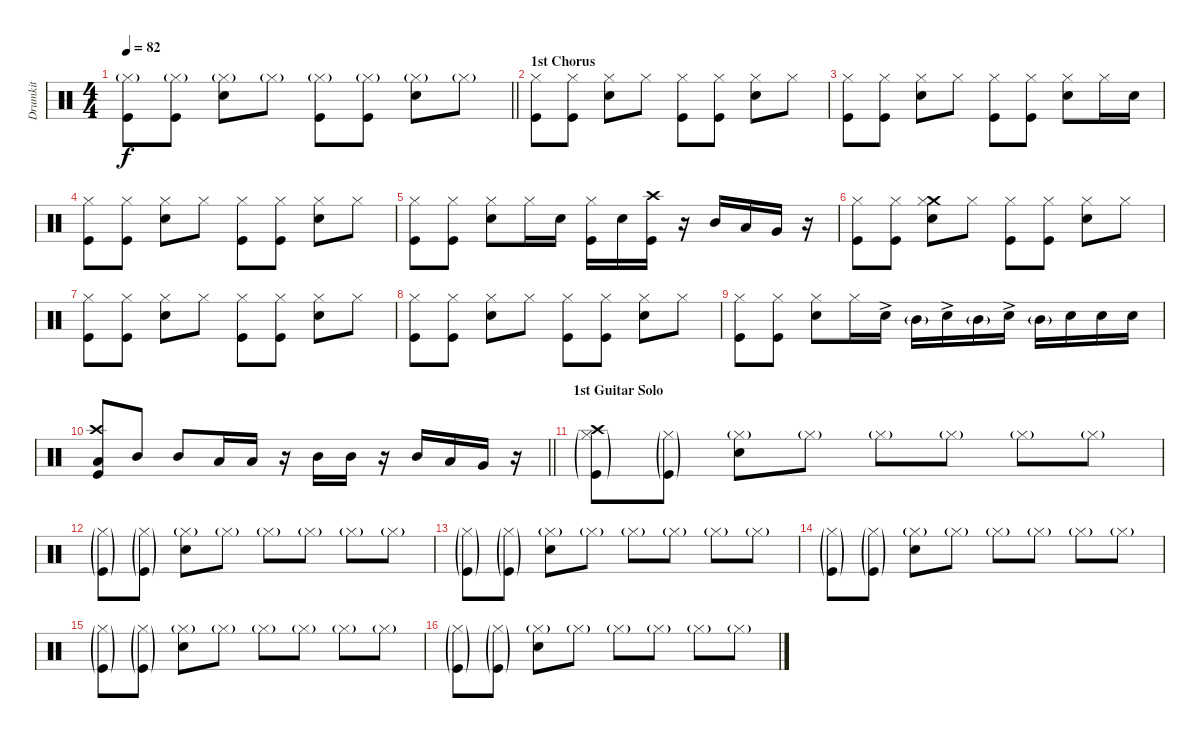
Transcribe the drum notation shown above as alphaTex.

\track ("Drumkit" "Drumkit") {instrument percussion}
\staff {score}
\articulation defaults
\ts (4 4)
\tempo 82
\clef neutral
\barLineRight lightlight
\ks c
("Hi-Hat (closed)"{g} "Kick (hit)").8{dy f} ("Hi-Hat (closed)"{g} "Kick (hit)").8 ("Hi-Hat (closed)"{g} "Snare (hit) 2").8 "Hi-Hat (closed)"{g}.8 ("Hi-Hat (closed)"{g} "Kick (hit)").8 ("Hi-Hat (closed)"{g} "Kick (hit)").8 ("Hi-Hat (closed)"{g} "Snare (hit) 2").8 "Hi-Hat (closed)"{g}.8 |
\section ("" "1st Chorus")
("Hi-Hat (closed)" "Kick (hit)").8 ("Hi-Hat (closed)" "Kick (hit)").8 ("Hi-Hat (closed)" "Snare (hit) 2").8 "Hi-Hat (closed)".8 ("Hi-Hat (closed)" "Kick (hit)").8 ("Hi-Hat (closed)" "Kick (hit)").8 ("Hi-Hat (closed)" "Snare (hit) 2").8 "Hi-Hat (closed)".8 |
("Hi-Hat (closed)" "Kick (hit)").8 ("Hi-Hat (closed)" "Kick (hit)").8 ("Hi-Hat (closed)" "Snare (hit) 2").8 "Hi-Hat (closed)".8 ("Hi-Hat (closed)" "Kick (hit)").8 ("Hi-Hat (closed)" "Kick (hit)").8 ("Hi-Hat (closed)" "Snare (hit) 2").8 "Hi-Hat (closed)".16 "Snare (hit) 2".16 |
("Hi-Hat (closed)" "Kick (hit)").8 ("Hi-Hat (closed)" "Kick (hit)").8 ("Hi-Hat (closed)" "Snare (hit) 2").8 "Hi-Hat (closed)".8 ("Hi-Hat (closed)" "Kick (hit)").8 ("Hi-Hat (closed)" "Kick (hit)").8 ("Hi-Hat (closed)" "Snare (hit) 2").8 "Hi-Hat (closed)".8 |
("Hi-Hat (closed)" "Kick (hit)").8 ("Hi-Hat (closed)" "Kick (hit)").8 ("Hi-Hat (closed)" "Snare (hit) 2").8 "Hi-Hat (closed)".16 "Snare (hit) 2".16 ("Hi-Hat (closed)" "Kick (hit)").16 "Snare (hit) 2".16 ("Crash high (hit)" "Kick (hit)").16 r.16 "Mid Tom (hit)".16 "Low Tom (hit)".16 "Very Low Tom (hit)".16 r.16 |
("Hi-Hat (closed)" "Kick (hit)").8 ("Hi-Hat (closed)" "Kick (hit)").8 ("Crash medium (hit)" "Hi-Hat (closed)" "Snare (hit) 2").8 "Hi-Hat (closed)".8 ("Hi-Hat (closed)" "Kick (hit)").8 ("Hi-Hat (closed)" "Kick (hit)").8 ("Hi-Hat (closed)" "Snare (hit) 2").8 "Hi-Hat (closed)".8 |
("Hi-Hat (closed)" "Kick (hit)").8 ("Hi-Hat (closed)" "Kick (hit)").8 ("Hi-Hat (closed)" "Snare (hit) 2").8 "Hi-Hat (closed)".8 ("Hi-Hat (closed)" "Kick (hit)").8 ("Hi-Hat (closed)" "Kick (hit)").8 ("Hi-Hat (closed)" "Snare (hit) 2").8 "Hi-Hat (closed)".8 |
("Hi-Hat (closed)" "Kick (hit)").8 ("Hi-Hat (closed)" "Kick (hit)").8 ("Hi-Hat (closed)" "Snare (hit) 2").8 "Hi-Hat (closed)".8 ("Hi-Hat (closed)" "Kick (hit)").8 ("Hi-Hat (closed)" "Kick (hit)").8 ("Hi-Hat (closed)" "Snare (hit) 2").8 "Hi-Hat (closed)".8 |
("Hi-Hat (closed)" "Kick (hit)").8 ("Hi-Hat (closed)" "Kick (hit)").8 ("Hi-Hat (closed)" "Snare (hit) 2").8 "Hi-Hat (closed)".16 "Snare (hit) 2"{ac}.16 "Mid Tom (hit)"{g}.16 "Snare (hit) 2"{ac}.16 "Mid Tom (hit)"{g}.16 "Snare (hit) 2"{ac}.16 "Mid Tom (hit)"{g}.16 "Snare (hit) 2".16 "Snare (hit) 2".16 "Snare (hit) 2".16 |
\barLineRight lightlight
("Crash high (hit)" "Low Tom (hit)" "Kick (hit)").8 "Mid Tom (hit)".8 "Mid Tom (hit)".8 "Low Tom (hit)".16 "Low Tom (hit)".16 r.16 "Mid Tom (hit)".16 "Mid Tom (hit)".16 r.16 "Mid Tom (hit)".16 "Low Tom (hit)".16 "Very Low Tom (hit)".16 r.16 |
\section ("" "1st Guitar Solo")
("Crash high (hit)" "Hi-Hat (closed)"{g} "Kick (hit)"{g}).8 ("Hi-Hat (closed)"{g} "Kick (hit)"{g}).8 ("Hi-Hat (closed)"{g} "Snare (hit) 2").8 "Hi-Hat (closed)"{g}.8 "Hi-Hat (closed)"{g}.8 "Hi-Hat (closed)"{g}.8 "Hi-Hat (closed)"{g}.8 "Hi-Hat (closed)"{g}.8 |
("Hi-Hat (closed)"{g} "Kick (hit)"{g}).8 ("Hi-Hat (closed)"{g} "Kick (hit)"{g}).8 ("Hi-Hat (closed)"{g} "Snare (hit) 2").8 "Hi-Hat (closed)"{g}.8 "Hi-Hat (closed)"{g}.8 "Hi-Hat (closed)"{g}.8 "Hi-Hat (closed)"{g}.8 "Hi-Hat (closed)"{g}.8 |
("Hi-Hat (closed)"{g} "Kick (hit)"{g}).8 ("Hi-Hat (closed)"{g} "Kick (hit)"{g}).8 ("Hi-Hat (closed)"{g} "Snare (hit) 2").8 "Hi-Hat (closed)"{g}.8 "Hi-Hat (closed)"{g}.8 "Hi-Hat (closed)"{g}.8 "Hi-Hat (closed)"{g}.8 "Hi-Hat (closed)"{g}.8 |
("Hi-Hat (closed)"{g} "Kick (hit)"{g}).8 ("Hi-Hat (closed)"{g} "Kick (hit)"{g}).8 ("Hi-Hat (closed)"{g} "Snare (hit) 2").8 "Hi-Hat (closed)"{g}.8 "Hi-Hat (closed)"{g}.8 "Hi-Hat (closed)"{g}.8 "Hi-Hat (closed)"{g}.8 "Hi-Hat (closed)"{g}.8 |
("Hi-Hat (closed)"{g} "Kick (hit)"{g}).8 ("Hi-Hat (closed)"{g} "Kick (hit)"{g}).8 ("Hi-Hat (closed)"{g} "Snare (hit) 2").8 "Hi-Hat (closed)"{g}.8 "Hi-Hat (closed)"{g}.8 "Hi-Hat (closed)"{g}.8 "Hi-Hat (closed)"{g}.8 "Hi-Hat (closed)"{g}.8 |
("Hi-Hat (closed)"{g} "Kick (hit)"{g}).8 ("Hi-Hat (closed)"{g} "Kick (hit)"{g}).8 ("Hi-Hat (closed)"{g} "Snare (hit) 2").8 "Hi-Hat (closed)"{g}.8 "Hi-Hat (closed)"{g}.8 "Hi-Hat (closed)"{g}.8 "Hi-Hat (closed)"{g}.8 "Hi-Hat (closed)"{g}.8
